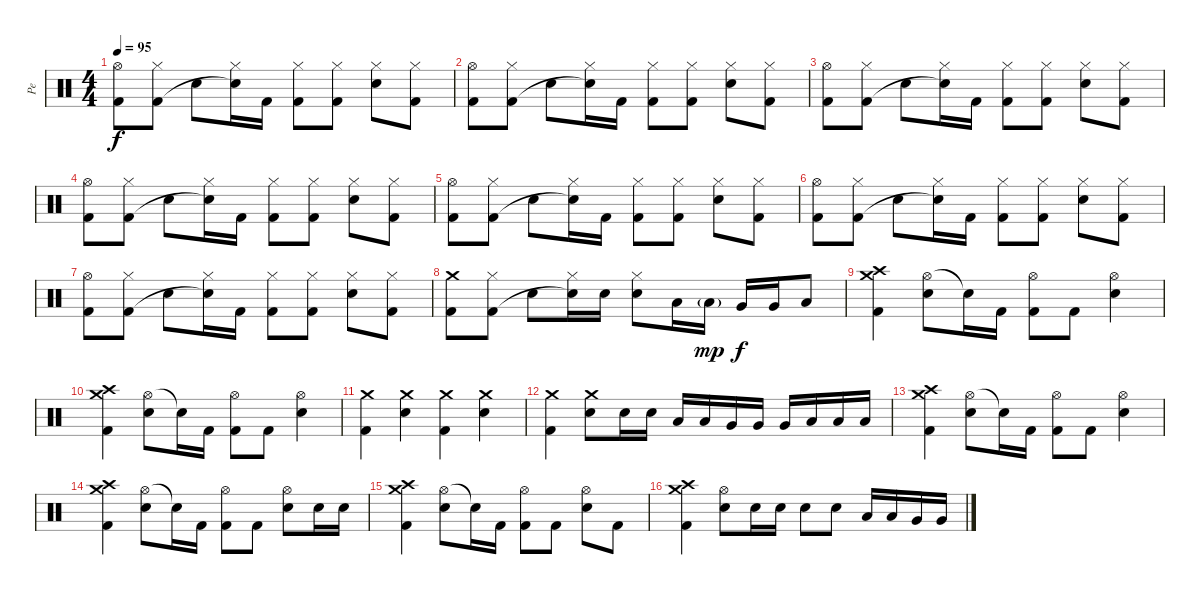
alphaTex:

\track ("Pe" "Pe") {instrument percussion}
\staff {score}
\articulation defaults
\ts (4 4)
\tempo 95
\clef neutral
\ks c
("Hi-Hat (open)" "Kick (hit) 2").8{dy f} ("Hi-Hat (closed)" "Kick (hit) 2").8 "Electric Snare (hit)".8 ("Hi-Hat (closed)" "Snare (hit)"{t}).16 "Kick (hit) 2".16 ("Hi-Hat (closed)" "Kick (hit) 2").8 ("Hi-Hat (closed)" "Kick (hit) 2").8 ("Hi-Hat (closed)" "Electric Snare (hit)").8 ("Hi-Hat (closed)" "Kick (hit) 2").8 |
("Hi-Hat (open)" "Kick (hit) 2").8 ("Hi-Hat (closed)" "Kick (hit) 2").8 "Electric Snare (hit)".8 ("Hi-Hat (closed)" "Snare (hit)"{t}).16 "Kick (hit) 2".16 ("Hi-Hat (closed)" "Kick (hit) 2").8 ("Hi-Hat (closed)" "Kick (hit) 2").8 ("Hi-Hat (closed)" "Electric Snare (hit)").8 ("Hi-Hat (closed)" "Kick (hit) 2").8 |
("Hi-Hat (open)" "Kick (hit) 2").8 ("Hi-Hat (closed)" "Kick (hit) 2").8 "Electric Snare (hit)".8 ("Hi-Hat (closed)" "Snare (hit)"{t}).16 "Kick (hit) 2".16 ("Hi-Hat (closed)" "Kick (hit) 2").8 ("Hi-Hat (closed)" "Kick (hit) 2").8 ("Hi-Hat (closed)" "Electric Snare (hit)").8 ("Hi-Hat (closed)" "Kick (hit) 2").8 |
("Hi-Hat (open)" "Kick (hit) 2").8 ("Hi-Hat (closed)" "Kick (hit) 2").8 "Electric Snare (hit)".8 ("Hi-Hat (closed)" "Snare (hit)"{t}).16 "Kick (hit) 2".16 ("Hi-Hat (closed)" "Kick (hit) 2").8 ("Hi-Hat (closed)" "Kick (hit) 2").8 ("Hi-Hat (closed)" "Electric Snare (hit)").8 ("Hi-Hat (closed)" "Kick (hit) 2").8 |
("Hi-Hat (open)" "Kick (hit) 2").8 ("Hi-Hat (closed)" "Kick (hit) 2").8 "Electric Snare (hit)".8 ("Hi-Hat (closed)" "Snare (hit)"{t}).16 "Kick (hit) 2".16 ("Hi-Hat (closed)" "Kick (hit) 2").8 ("Hi-Hat (closed)" "Kick (hit) 2").8 ("Hi-Hat (closed)" "Electric Snare (hit)").8 ("Hi-Hat (closed)" "Kick (hit) 2").8 |
("Hi-Hat (open)" "Kick (hit) 2").8 ("Hi-Hat (closed)" "Kick (hit) 2").8 "Electric Snare (hit)".8 ("Hi-Hat (closed)" "Snare (hit)"{t}).16 "Kick (hit) 2".16 ("Hi-Hat (closed)" "Kick (hit) 2").8 ("Hi-Hat (closed)" "Kick (hit) 2").8 ("Hi-Hat (closed)" "Electric Snare (hit)").8 ("Hi-Hat (closed)" "Kick (hit) 2").8 |
("Hi-Hat (open)" "Kick (hit) 2").8 ("Hi-Hat (closed)" "Kick (hit) 2").8 "Electric Snare (hit)".8 ("Hi-Hat (closed)" "Snare (hit)"{t}).16 "Kick (hit) 2".16 ("Hi-Hat (closed)" "Kick (hit) 2").8 ("Hi-Hat (closed)" "Kick (hit) 2").8 ("Hi-Hat (closed)" "Electric Snare (hit)").8 ("Hi-Hat (closed)" "Kick (hit) 2").8 |
("Crash medium (hit)" "Kick (hit) 2").8 ("Hi-Hat (closed)" "Kick (hit) 2").8 "Electric Snare (hit)".8{volume 12} ("Hi-Hat (closed)" "Snare (hit)"{t}).16 "Electric Snare (hit)".16 ("Hi-Hat (closed)" "Electric Snare (hit)").8 "Low Tom (hit)".16 "Low Tom (hit)"{g}.16{dy mp} "Very Low Tom (hit)".16{dy f} "Very Low Tom (hit)".16 "Low Floor Tom (hit)".8 |
("Crash medium (hit)" "Crash high (hit)" "Kick (hit) 2").4 ("Hi-Hat (open)" "Electric Snare (hit)").8 "Snare (hit)"{t}.16 "Kick (hit) 2".16 ("Hi-Hat (open)" "Kick (hit) 2").8 "Kick (hit) 2".8 ("Hi-Hat (open)" "Electric Snare (hit)").4 |
("Crash medium (hit)" "Crash high (hit)" "Kick (hit) 2").4 ("Hi-Hat (open)" "Electric Snare (hit)").8 "Snare (hit)"{t}.16 "Kick (hit) 2".16 ("Hi-Hat (open)" "Kick (hit) 2").8 "Kick (hit) 2".8 ("Hi-Hat (open)" "Electric Snare (hit)").4 |
("Crash medium (hit)" "Kick (hit) 2").4 ("Crash medium (hit)" "Electric Snare (hit)").4 ("Crash medium (hit)" "Kick (hit) 2").4 ("Crash medium (hit)" "Electric Snare (hit)").4 |
("Crash medium (hit)" "Kick (hit) 2").4 ("Crash medium (hit)" "Electric Snare (hit)").8 "Electric Snare (hit)".16 "Electric Snare (hit)".16 "Low Tom (hit)".16 "Low Tom (hit)".16 "Very Low Tom (hit)".16 "Very Low Tom (hit)".16 "Very Low Tom (hit)".16 "Low Floor Tom (hit)".16 "Low Floor Tom (hit)".16 "Low Floor Tom (hit)".16 |
("Crash medium (hit)" "Crash high (hit)" "Kick (hit) 2").4 ("Hi-Hat (open)" "Electric Snare (hit)").8 "Snare (hit)"{t}.16 "Kick (hit) 2".16 ("Hi-Hat (open)" "Kick (hit) 2").8 "Kick (hit) 2".8 ("Hi-Hat (open)" "Electric Snare (hit)").4 |
("Crash medium (hit)" "Crash high (hit)" "Kick (hit) 2").4 ("Hi-Hat (open)" "Electric Snare (hit)").8 "Snare (hit)"{t}.16 "Kick (hit) 2".16 ("Hi-Hat (open)" "Kick (hit) 2").8 "Kick (hit) 2".8 ("Hi-Hat (open)" "Electric Snare (hit)").8 "Electric Snare (hit)".16 "Electric Snare (hit)".16 |
("Crash medium (hit)" "Crash high (hit)" "Kick (hit) 2").4 ("Hi-Hat (open)" "Electric Snare (hit)").8 "Snare (hit)"{t}.16 "Kick (hit) 2".16 ("Hi-Hat (open)" "Kick (hit) 2").8 "Kick (hit) 2".8 ("Hi-Hat (open)" "Electric Snare (hit)").8 "Kick (hit) 2".8 |
("Crash medium (hit)" "Crash high (hit)" "Kick (hit) 2").4 ("Hi-Hat (open)" "Electric Snare (hit)").8 "Electric Snare (hit)".16 "Electric Snare (hit)".16 "Electric Snare (hit)".8 "Electric Snare (hit)".8 "Low Tom (hit)".16 "Low Tom (hit)".16 "Very Low Tom (hit)".16 "Very Low Tom (hit)".16
